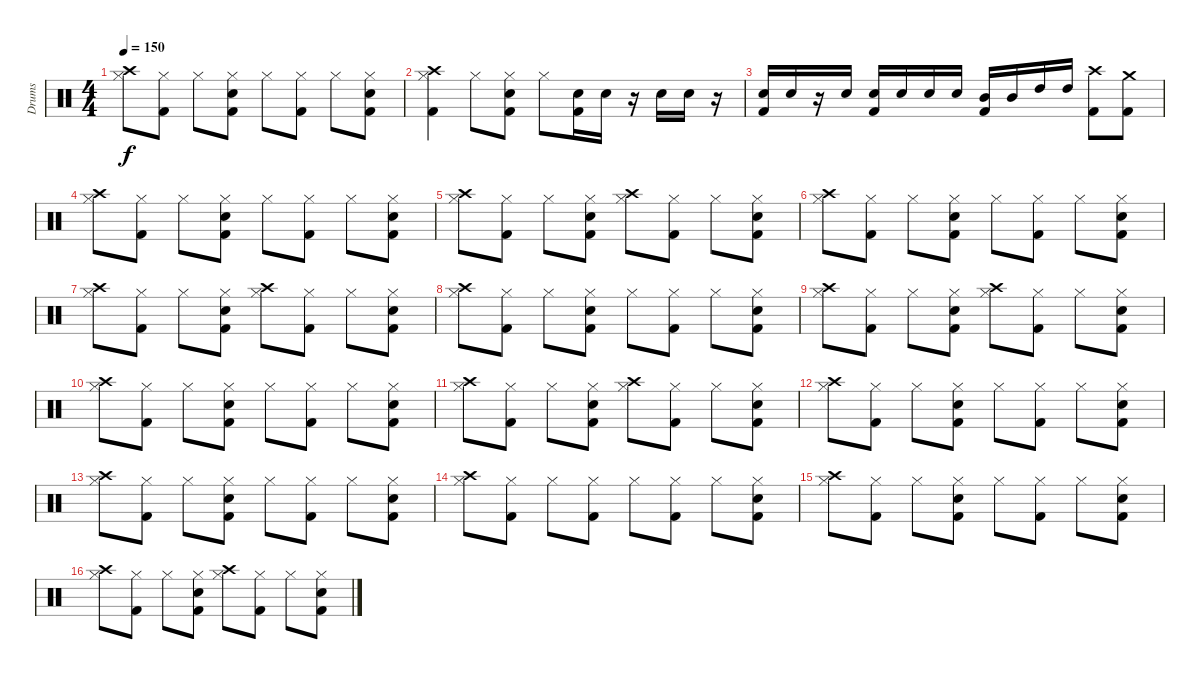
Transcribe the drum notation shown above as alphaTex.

\track ("Drums" "Drums") {instrument percussion}
\staff {score}
\articulation defaults
\ts (4 4)
\tempo 150
\clef neutral
\ks c
("Crash high (hit)" "Hi-Hat (closed)").8{dy f} ("Kick (hit) 2" "Hi-Hat (closed)").8 "Hi-Hat (closed)".8 ("Electric Snare (hit)" "Kick (hit) 2" "Hi-Hat (closed)").8 "Hi-Hat (closed)".8 ("Kick (hit) 2" "Hi-Hat (closed)").8 "Hi-Hat (closed)".8 ("Electric Snare (hit)" "Kick (hit) 2" "Hi-Hat (closed)").8 |
("Kick (hit) 2" "Crash high (hit)" "Hi-Hat (closed)").4 "Hi-Hat (closed)".8 ("Kick (hit) 2" "Electric Snare (hit)" "Hi-Hat (closed)").8 "Hi-Hat (closed)".8 ("Kick (hit) 2" "Electric Snare (hit)").16 "Electric Snare (hit)".16 r.16 "Electric Snare (hit)".16 "Electric Snare (hit)".16 r.16 |
("Kick (hit) 2" "Electric Snare (hit)").16 "Electric Snare (hit)".16 r.16 "Electric Snare (hit)".16 ("Kick (hit) 2" "Electric Snare (hit)").16 "Electric Snare (hit)".16 "Electric Snare (hit)".16 "Electric Snare (hit)".16 ("Kick (hit) 2" "Mid Tom (hit)").16 "Mid Tom (hit)".16 "High Tom (hit)".16 "High Tom (hit)".16 ("Kick (hit) 2" "Crash high (hit)").8 ("Kick (hit) 2" "Crash medium (hit)").8 |
("Crash high (hit)" "Hi-Hat (closed)").8 ("Kick (hit) 2" "Hi-Hat (closed)").8 "Hi-Hat (closed)".8 ("Electric Snare (hit)" "Kick (hit) 2" "Hi-Hat (closed)").8 "Hi-Hat (closed)".8 ("Kick (hit) 2" "Hi-Hat (closed)").8 "Hi-Hat (closed)".8 ("Electric Snare (hit)" "Kick (hit) 2" "Hi-Hat (closed)").8 |
("Crash high (hit)" "Hi-Hat (closed)").8 ("Kick (hit) 2" "Hi-Hat (closed)").8 "Hi-Hat (closed)".8 ("Electric Snare (hit)" "Kick (hit) 2" "Hi-Hat (closed)").8 ("Crash high (hit)" "Hi-Hat (closed)").8 ("Kick (hit) 2" "Hi-Hat (closed)").8 "Hi-Hat (closed)".8 ("Electric Snare (hit)" "Kick (hit) 2" "Hi-Hat (closed)").8 |
("Crash high (hit)" "Hi-Hat (closed)").8 ("Kick (hit) 2" "Hi-Hat (closed)").8 "Hi-Hat (closed)".8 ("Electric Snare (hit)" "Kick (hit) 2" "Hi-Hat (closed)").8 "Hi-Hat (closed)".8 ("Kick (hit) 2" "Hi-Hat (closed)").8 "Hi-Hat (closed)".8 ("Electric Snare (hit)" "Kick (hit) 2" "Hi-Hat (closed)").8 |
("Crash high (hit)" "Hi-Hat (closed)").8 ("Kick (hit) 2" "Hi-Hat (closed)").8 "Hi-Hat (closed)".8 ("Electric Snare (hit)" "Kick (hit) 2" "Hi-Hat (closed)").8 ("Crash high (hit)" "Hi-Hat (closed)").8 ("Kick (hit) 2" "Hi-Hat (closed)").8 "Hi-Hat (closed)".8 ("Electric Snare (hit)" "Kick (hit) 2" "Hi-Hat (closed)").8 |
("Crash high (hit)" "Hi-Hat (closed)").8 ("Kick (hit) 2" "Hi-Hat (closed)").8 "Hi-Hat (closed)".8 ("Electric Snare (hit)" "Kick (hit) 2" "Hi-Hat (closed)").8 "Hi-Hat (closed)".8 ("Kick (hit) 2" "Hi-Hat (closed)").8 "Hi-Hat (closed)".8 ("Electric Snare (hit)" "Kick (hit) 2" "Hi-Hat (closed)").8 |
("Crash high (hit)" "Hi-Hat (closed)").8 ("Kick (hit) 2" "Hi-Hat (closed)").8 "Hi-Hat (closed)".8 ("Electric Snare (hit)" "Kick (hit) 2" "Hi-Hat (closed)").8 ("Crash high (hit)" "Hi-Hat (closed)").8 ("Kick (hit) 2" "Hi-Hat (closed)").8 "Hi-Hat (closed)".8 ("Electric Snare (hit)" "Kick (hit) 2" "Hi-Hat (closed)").8 |
("Crash high (hit)" "Hi-Hat (closed)").8 ("Kick (hit) 2" "Hi-Hat (closed)").8 "Hi-Hat (closed)".8 ("Electric Snare (hit)" "Kick (hit) 2" "Hi-Hat (closed)").8 "Hi-Hat (closed)".8 ("Kick (hit) 2" "Hi-Hat (closed)").8 "Hi-Hat (closed)".8 ("Electric Snare (hit)" "Kick (hit) 2" "Hi-Hat (closed)").8 |
("Crash high (hit)" "Hi-Hat (closed)").8 ("Kick (hit) 2" "Hi-Hat (closed)").8 "Hi-Hat (closed)".8 ("Electric Snare (hit)" "Kick (hit) 2" "Hi-Hat (closed)").8 ("Crash high (hit)" "Hi-Hat (closed)").8 ("Kick (hit) 2" "Hi-Hat (closed)").8 "Hi-Hat (closed)".8 ("Electric Snare (hit)" "Kick (hit) 2" "Hi-Hat (closed)").8 |
("Crash high (hit)" "Hi-Hat (closed)").8 ("Kick (hit) 2" "Hi-Hat (closed)").8 "Hi-Hat (closed)".8 ("Electric Snare (hit)" "Kick (hit) 2" "Hi-Hat (closed)").8 "Hi-Hat (closed)".8 ("Kick (hit) 2" "Hi-Hat (closed)").8 "Hi-Hat (closed)".8 ("Electric Snare (hit)" "Kick (hit) 2" "Hi-Hat (closed)").8 |
("Crash high (hit)" "Hi-Hat (closed)").8 ("Kick (hit) 2" "Hi-Hat (closed)").8 "Hi-Hat (closed)".8 ("Electric Snare (hit)" "Kick (hit) 2" "Hi-Hat (closed)").8 "Hi-Hat (closed)".8 ("Kick (hit) 2" "Hi-Hat (closed)").8 "Hi-Hat (closed)".8 ("Electric Snare (hit)" "Kick (hit) 2" "Hi-Hat (closed)").8 |
("Crash high (hit)" "Hi-Hat (closed)").8 ("Kick (hit) 2" "Hi-Hat (closed)").8 "Hi-Hat (closed)".8 ("Kick (hit) 2" "Hi-Hat (closed)").8 "Hi-Hat (closed)".8 ("Kick (hit) 2" "Hi-Hat (closed)").8 "Hi-Hat (closed)".8 ("Electric Snare (hit)" "Kick (hit) 2" "Hi-Hat (closed)").8 |
("Crash high (hit)" "Hi-Hat (closed)").8 ("Kick (hit) 2" "Hi-Hat (closed)").8 "Hi-Hat (closed)".8 ("Electric Snare (hit)" "Kick (hit) 2" "Hi-Hat (closed)").8 "Hi-Hat (closed)".8 ("Kick (hit) 2" "Hi-Hat (closed)").8 "Hi-Hat (closed)".8 ("Electric Snare (hit)" "Kick (hit) 2" "Hi-Hat (closed)").8 |
("Crash high (hit)" "Hi-Hat (closed)").8 ("Kick (hit) 2" "Hi-Hat (closed)").8 "Hi-Hat (closed)".8 ("Electric Snare (hit)" "Kick (hit) 2" "Hi-Hat (closed)").8 ("Crash high (hit)" "Hi-Hat (closed)").8 ("Kick (hit) 2" "Hi-Hat (closed)").8 "Hi-Hat (closed)".8 ("Electric Snare (hit)" "Kick (hit) 2" "Hi-Hat (closed)").8
